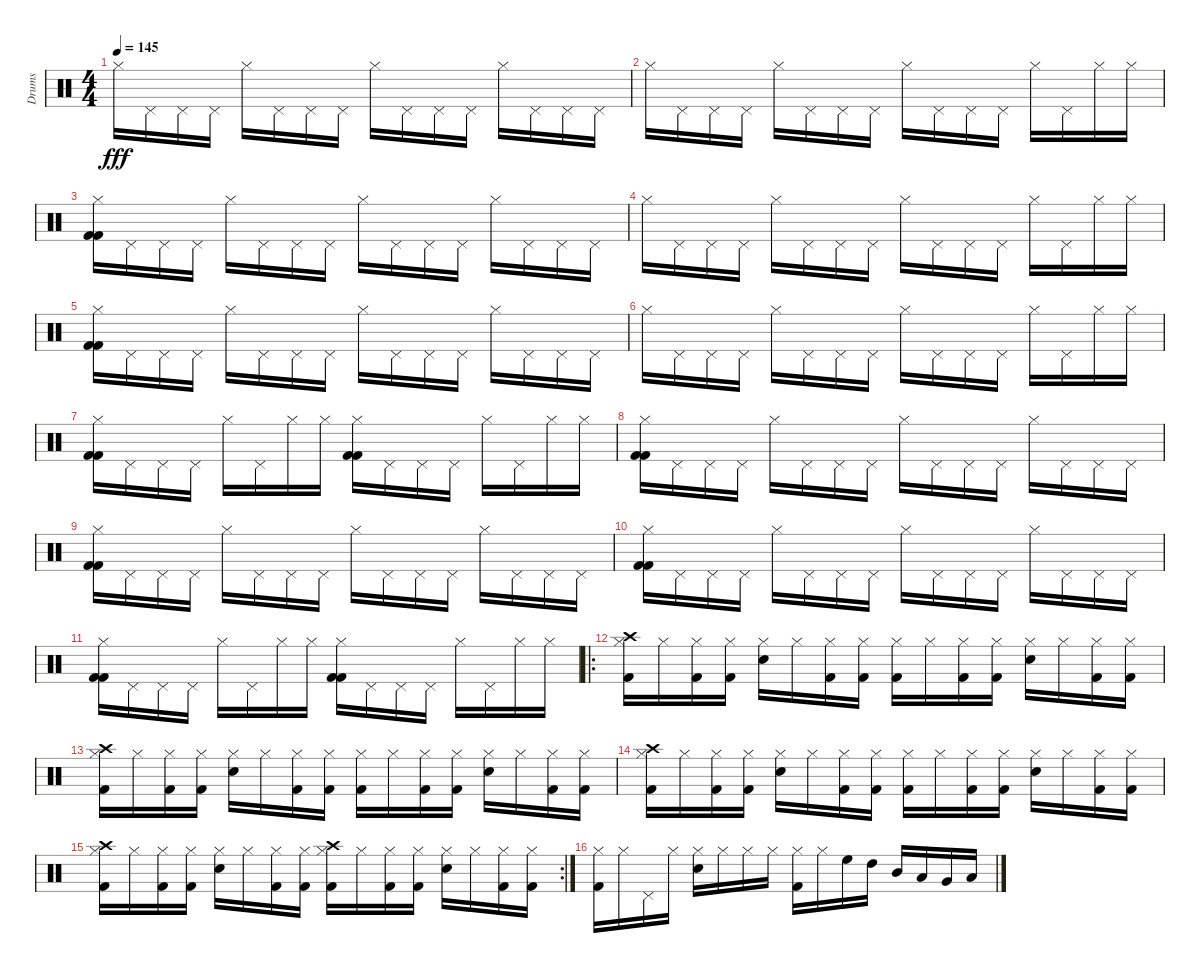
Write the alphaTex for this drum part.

\track ("Drums" "Drums") {instrument percussion}
\staff {score}
\articulation defaults
\ts (4 4)
\tempo 145
\clef neutral
\ks c "Hi-Hat (closed)".16{dy fff} "Pedal Hi-Hat (hit)".16 "Pedal Hi-Hat (hit)".16 "Pedal Hi-Hat (hit)".16 "Hi-Hat (closed)".16 "Pedal Hi-Hat (hit)".16 "Pedal Hi-Hat (hit)".16 "Pedal Hi-Hat (hit)".16 "Hi-Hat (closed)".16 "Pedal Hi-Hat (hit)".16 "Pedal Hi-Hat (hit)".16 "Pedal Hi-Hat (hit)".16 "Hi-Hat (closed)".16 "Pedal Hi-Hat (hit)".16 "Pedal Hi-Hat (hit)".16 "Pedal Hi-Hat (hit)".16
|
"Hi-Hat (closed)".16 "Pedal Hi-Hat (hit)".16 "Pedal Hi-Hat (hit)".16 "Pedal Hi-Hat (hit)".16 "Hi-Hat (closed)".16 "Pedal Hi-Hat (hit)".16 "Pedal Hi-Hat (hit)".16 "Pedal Hi-Hat (hit)".16 "Hi-Hat (closed)".16 "Pedal Hi-Hat (hit)".16 "Pedal Hi-Hat (hit)".16 "Pedal Hi-Hat (hit)".16 "Hi-Hat (closed)".16 "Pedal Hi-Hat (hit)".16 "Hi-Hat (closed)".16 "Hi-Hat (closed)".16 |
("Hi-Hat (closed)" "Kick (hit) 2" "Kick (hit) 2").16 "Pedal Hi-Hat (hit)".16 "Pedal Hi-Hat (hit)".16 "Pedal Hi-Hat (hit)".16 "Hi-Hat (closed)".16 "Pedal Hi-Hat (hit)".16 "Pedal Hi-Hat (hit)".16 "Pedal Hi-Hat (hit)".16 "Hi-Hat (closed)".16 "Pedal Hi-Hat (hit)".16 "Pedal Hi-Hat (hit)".16 "Pedal Hi-Hat (hit)".16 "Hi-Hat (closed)".16 "Pedal Hi-Hat (hit)".16 "Pedal Hi-Hat (hit)".16 "Pedal Hi-Hat (hit)".16 |
"Hi-Hat (closed)".16 "Pedal Hi-Hat (hit)".16 "Pedal Hi-Hat (hit)".16 "Pedal Hi-Hat (hit)".16 "Hi-Hat (closed)".16 "Pedal Hi-Hat (hit)".16 "Pedal Hi-Hat (hit)".16 "Pedal Hi-Hat (hit)".16 "Hi-Hat (closed)".16 "Pedal Hi-Hat (hit)".16 "Pedal Hi-Hat (hit)".16 "Pedal Hi-Hat (hit)".16 "Hi-Hat (closed)".16 "Pedal Hi-Hat (hit)".16 "Hi-Hat (closed)".16 "Hi-Hat (closed)".16 |
("Hi-Hat (closed)" "Kick (hit) 2" "Kick (hit) 2").16 "Pedal Hi-Hat (hit)".16 "Pedal Hi-Hat (hit)".16 "Pedal Hi-Hat (hit)".16 "Hi-Hat (closed)".16 "Pedal Hi-Hat (hit)".16 "Pedal Hi-Hat (hit)".16 "Pedal Hi-Hat (hit)".16 "Hi-Hat (closed)".16 "Pedal Hi-Hat (hit)".16 "Pedal Hi-Hat (hit)".16 "Pedal Hi-Hat (hit)".16 "Hi-Hat (closed)".16 "Pedal Hi-Hat (hit)".16 "Pedal Hi-Hat (hit)".16 "Pedal Hi-Hat (hit)".16 |
"Hi-Hat (closed)".16 "Pedal Hi-Hat (hit)".16 "Pedal Hi-Hat (hit)".16 "Pedal Hi-Hat (hit)".16 "Hi-Hat (closed)".16 "Pedal Hi-Hat (hit)".16 "Pedal Hi-Hat (hit)".16 "Pedal Hi-Hat (hit)".16 "Hi-Hat (closed)".16 "Pedal Hi-Hat (hit)".16 "Pedal Hi-Hat (hit)".16 "Pedal Hi-Hat (hit)".16 "Hi-Hat (closed)".16 "Pedal Hi-Hat (hit)".16 "Hi-Hat (closed)".16 "Hi-Hat (closed)".16 |
("Hi-Hat (closed)" "Kick (hit) 2" "Kick (hit) 2").16 "Pedal Hi-Hat (hit)".16 "Pedal Hi-Hat (hit)".16 "Pedal Hi-Hat (hit)".16 "Hi-Hat (closed)".16 "Pedal Hi-Hat (hit)".16 "Hi-Hat (closed)".16 "Hi-Hat (closed)".16 ("Hi-Hat (closed)" "Kick (hit) 2" "Kick (hit) 2").16 "Pedal Hi-Hat (hit)".16 "Pedal Hi-Hat (hit)".16 "Pedal Hi-Hat (hit)".16 "Hi-Hat (closed)".16 "Pedal Hi-Hat (hit)".16 "Hi-Hat (closed)".16 "Hi-Hat (closed)".16 |
("Hi-Hat (closed)" "Kick (hit) 2" "Kick (hit) 2").16 "Pedal Hi-Hat (hit)".16 "Pedal Hi-Hat (hit)".16 "Pedal Hi-Hat (hit)".16 "Hi-Hat (closed)".16 "Pedal Hi-Hat (hit)".16 "Pedal Hi-Hat (hit)".16 "Pedal Hi-Hat (hit)".16 "Hi-Hat (closed)".16 "Pedal Hi-Hat (hit)".16 "Pedal Hi-Hat (hit)".16 "Pedal Hi-Hat (hit)".16 "Hi-Hat (closed)".16 "Pedal Hi-Hat (hit)".16 "Pedal Hi-Hat (hit)".16 "Pedal Hi-Hat (hit)".16 |
("Hi-Hat (closed)" "Kick (hit) 2" "Kick (hit) 2").16 "Pedal Hi-Hat (hit)".16 "Pedal Hi-Hat (hit)".16 "Pedal Hi-Hat (hit)".16 "Hi-Hat (closed)".16 "Pedal Hi-Hat (hit)".16 "Pedal Hi-Hat (hit)".16 "Pedal Hi-Hat (hit)".16 "Hi-Hat (closed)".16 "Pedal Hi-Hat (hit)".16 "Pedal Hi-Hat (hit)".16 "Pedal Hi-Hat (hit)".16 "Hi-Hat (closed)".16 "Pedal Hi-Hat (hit)".16 "Pedal Hi-Hat (hit)".16 "Pedal Hi-Hat (hit)".16 |
("Hi-Hat (closed)" "Kick (hit) 2" "Kick (hit) 2").16 "Pedal Hi-Hat (hit)".16 "Pedal Hi-Hat (hit)".16 "Pedal Hi-Hat (hit)".16 "Hi-Hat (closed)".16 "Pedal Hi-Hat (hit)".16 "Pedal Hi-Hat (hit)".16 "Pedal Hi-Hat (hit)".16 "Hi-Hat (closed)".16 "Pedal Hi-Hat (hit)".16 "Pedal Hi-Hat (hit)".16 "Pedal Hi-Hat (hit)".16 "Hi-Hat (closed)".16 "Pedal Hi-Hat (hit)".16 "Pedal Hi-Hat (hit)".16 "Pedal Hi-Hat (hit)".16 |
("Hi-Hat (closed)" "Kick (hit) 2" "Kick (hit) 2").16 "Pedal Hi-Hat (hit)".16 "Pedal Hi-Hat (hit)".16 "Pedal Hi-Hat (hit)".16 "Hi-Hat (closed)".16 "Pedal Hi-Hat (hit)".16 "Hi-Hat (closed)".16 "Hi-Hat (closed)".16 ("Hi-Hat (closed)" "Kick (hit) 2" "Kick (hit) 2").16 "Pedal Hi-Hat (hit)".16 "Pedal Hi-Hat (hit)".16 "Pedal Hi-Hat (hit)".16 "Hi-Hat (closed)".16 "Pedal Hi-Hat (hit)".16 "Hi-Hat (closed)".16 "Hi-Hat (closed)".16 |
\ro
("Hi-Hat (closed)" "Kick (hit) 2" "Crash high (hit)").16 "Hi-Hat (closed)".16 ("Hi-Hat (closed)" "Kick (hit) 2").16 ("Hi-Hat (closed)" "Kick (hit) 2").16 ("Hi-Hat (closed)" "Snare (hit) 2").16 "Hi-Hat (closed)".16 ("Hi-Hat (closed)" "Kick (hit) 2").16 ("Hi-Hat (closed)" "Kick (hit) 2").16 ("Hi-Hat (closed)" "Kick (hit) 2").16 "Hi-Hat (closed)".16 ("Hi-Hat (closed)" "Kick (hit) 2").16 ("Hi-Hat (closed)" "Kick (hit) 2").16 ("Hi-Hat (closed)" "Snare (hit) 2").16 "Hi-Hat (closed)".16 ("Hi-Hat (closed)" "Kick (hit) 2").16 ("Hi-Hat (closed)" "Kick (hit) 2").16 |
("Hi-Hat (closed)" "Kick (hit) 2" "Crash high (hit)").16 "Hi-Hat (closed)".16 ("Hi-Hat (closed)" "Kick (hit) 2").16 ("Hi-Hat (closed)" "Kick (hit) 2").16 ("Hi-Hat (closed)" "Snare (hit) 2").16 "Hi-Hat (closed)".16 ("Hi-Hat (closed)" "Kick (hit) 2").16 ("Hi-Hat (closed)" "Kick (hit) 2").16 ("Hi-Hat (closed)" "Kick (hit) 2").16 "Hi-Hat (closed)".16 ("Hi-Hat (closed)" "Kick (hit) 2").16 ("Hi-Hat (closed)" "Kick (hit) 2").16 ("Hi-Hat (closed)" "Snare (hit) 2").16 "Hi-Hat (closed)".16 ("Hi-Hat (closed)" "Kick (hit) 2").16 ("Hi-Hat (closed)" "Kick (hit) 2").16 |
("Hi-Hat (closed)" "Kick (hit) 2" "Crash high (hit)").16 "Hi-Hat (closed)".16 ("Hi-Hat (closed)" "Kick (hit) 2").16 ("Hi-Hat (closed)" "Kick (hit) 2").16 ("Hi-Hat (closed)" "Snare (hit) 2").16 "Hi-Hat (closed)".16 ("Hi-Hat (closed)" "Kick (hit) 2").16 ("Hi-Hat (closed)" "Kick (hit) 2").16 ("Hi-Hat (closed)" "Kick (hit) 2").16 "Hi-Hat (closed)".16 ("Hi-Hat (closed)" "Kick (hit) 2").16 ("Hi-Hat (closed)" "Kick (hit) 2").16 ("Hi-Hat (closed)" "Snare (hit) 2").16 "Hi-Hat (closed)".16 ("Hi-Hat (closed)" "Kick (hit) 2").16 ("Hi-Hat (closed)" "Kick (hit) 2").16 |
\rc 2
("Hi-Hat (closed)" "Kick (hit) 2" "Crash high (hit)").16 "Hi-Hat (closed)".16 ("Hi-Hat (closed)" "Kick (hit) 2").16 ("Hi-Hat (closed)" "Kick (hit) 2").16 ("Hi-Hat (closed)" "Snare (hit) 2").16 "Hi-Hat (closed)".16 ("Hi-Hat (closed)" "Kick (hit) 2").16 ("Hi-Hat (closed)" "Kick (hit) 2").16 ("Hi-Hat (closed)" "Kick (hit) 2" "Crash high (hit)").16 "Hi-Hat (closed)".16 ("Hi-Hat (closed)" "Kick (hit) 2").16 ("Hi-Hat (closed)" "Kick (hit) 2").16 ("Hi-Hat (closed)" "Snare (hit) 2").16 "Hi-Hat (closed)".16 ("Hi-Hat (closed)" "Kick (hit) 2").16 ("Hi-Hat (closed)" "Kick (hit) 2").16 |
("Hi-Hat (closed)" "Kick (hit) 2").16 "Hi-Hat (closed)".16 "Pedal Hi-Hat (hit)".16 "Hi-Hat (closed)".16 ("Hi-Hat (closed)" "Snare (hit) 2").16 "Hi-Hat (closed)".16 "Hi-Hat (closed)".16 "Hi-Hat (closed)".16 ("Hi-Hat (closed)" "Kick (hit) 2").16 "Hi-Hat (closed)".16 "High Floor Tom (hit)".16 "High Tom (hit)".16 "Mid Tom (hit)".16 "Low Tom (hit)".16 "Very Low Tom (hit)".16 "Low Floor Tom (hit)".16
